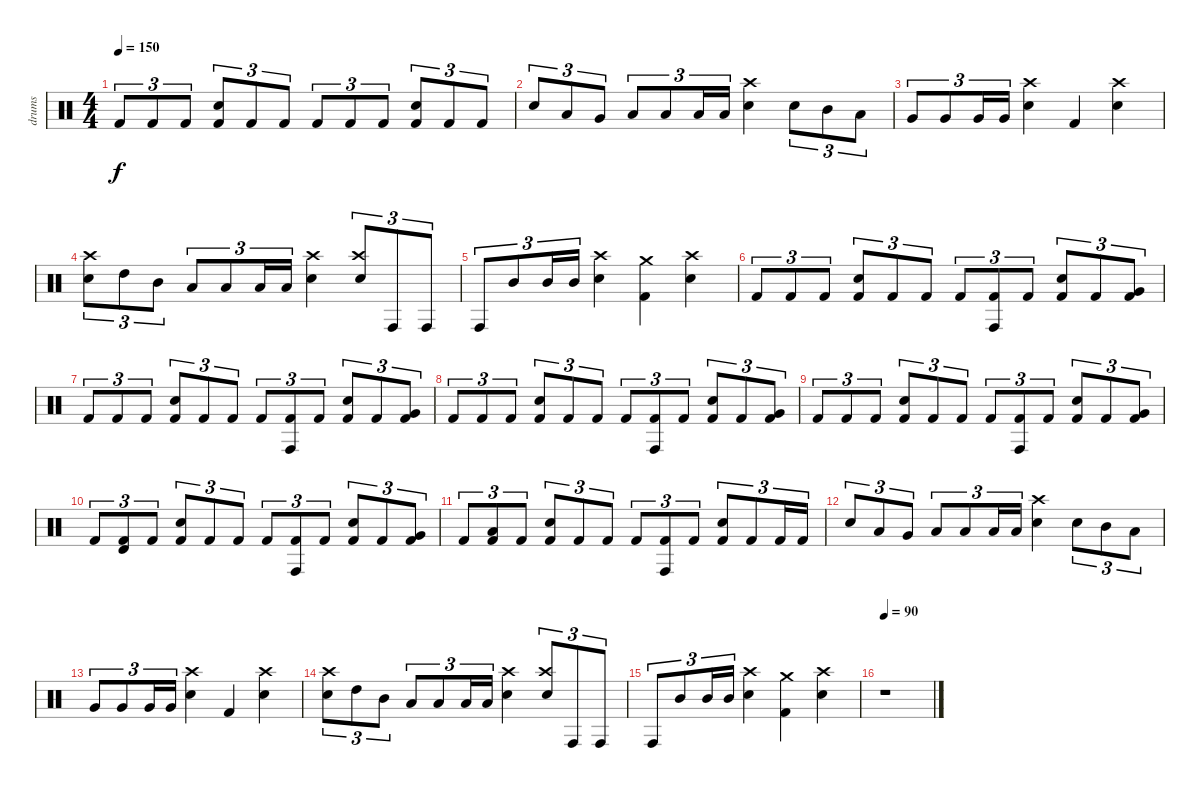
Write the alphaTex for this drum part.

\track ("drums" "drums") {instrument percussion}
\staff {score}
\articulation defaults
\ts (4 4)
\tempo 150
\clef neutral
\ks c "Kick (hit) 2".8{tu (3 2) dy f} "Kick (hit) 2".8{tu (3 2)} "Kick (hit) 2".8{tu (3 2)}
("Electric Snare (hit)" "Kick (hit) 2").8{tu (3 2)} "Kick (hit) 2".8{tu (3 2)} "Kick (hit) 2".8{tu (3 2)} "Kick (hit) 2".8{tu (3 2)} "Kick (hit) 2".8{tu (3 2)} "Kick (hit) 2".8{tu (3 2)} ("Electric Snare (hit)" "Kick (hit) 2").8{tu (3 2)} "Kick (hit) 2".8{tu (3 2)} "Kick (hit) 2".8{tu (3 2)} |
"Electric Snare (hit)".8{tu (3 2)} "Low Tom (hit)".8{tu (3 2)} "Very Low Tom (hit)".8{tu (3 2)} "Low Floor Tom (hit)".8{tu (3 2)} "Low Floor Tom (hit)".8{tu (3 2)} "Low Floor Tom (hit)".16{tu (3 2)} "Low Floor Tom (hit)".16{tu (3 2)} ("Crash high (hit)" "Electric Snare (hit)").4 "Electric Snare (hit)".8{tu (3 2)} "Mid Tom (hit)".8{tu (3 2)} "Low Tom (hit)".8{tu (3 2)} |
"Very Low Tom (hit)".8{tu (3 2)} "Very Low Tom (hit)".8{tu (3 2)} "Very Low Tom (hit)".16{tu (3 2)} "Very Low Tom (hit)".16{tu (3 2)} ("Crash high (hit)" "Electric Snare (hit)").4 "Kick (hit) 2".4 ("Crash high (hit)" "Electric Snare (hit)").4 |
("Crash high (hit)" "Electric Snare (hit)").8{tu (3 2)} "High Tom (hit)".8{tu (3 2)} "Mid Tom (hit)".8{tu (3 2)} "Low Tom (hit)".8{tu (3 2)} "Low Tom (hit)".8{tu (3 2)} "Low Tom (hit)".16{tu (3 2)} "Low Tom (hit)".16{tu (3 2)} ("Crash high (hit)" "Electric Snare (hit)").4 ("Crash high (hit)" "Electric Snare (hit)").8{tu (3 2)} "Conga high (hit)".8{tu (3 2)} "Conga high (hit)".8{tu (3 2)} |
"Conga high (hit)".8{tu (3 2)} "Mid Tom (hit)".8{tu (3 2)} "Mid Tom (hit)".16{tu (3 2)} "Mid Tom (hit)".16{tu (3 2)} ("Crash high (hit)" "Electric Snare (hit)").4 ("Crash medium (hit)" "Kick (hit) 2").4 ("Crash high (hit)" "Electric Snare (hit)").4 |
"Kick (hit) 2".8{tu (3 2)} "Kick (hit) 2".8{tu (3 2)} "Kick (hit) 2".8{tu (3 2)} ("Electric Snare (hit)" "Kick (hit) 2").8{tu (3 2)} "Kick (hit) 2".8{tu (3 2)} "Kick (hit) 2".8{tu (3 2)} "Kick (hit) 2".8{tu (3 2)} ("Conga high (hit)" "Kick (hit) 2").8{tu (3 2)} "Kick (hit) 2".8{tu (3 2)} ("Electric Snare (hit)" "Kick (hit) 2").8{tu (3 2)} "Kick (hit) 2".8{tu (3 2)} ("Very Low Tom (hit)" "Kick (hit) 2").8{tu (3 2)} |
"Kick (hit) 2".8{tu (3 2)} "Kick (hit) 2".8{tu (3 2)} "Kick (hit) 2".8{tu (3 2)} ("Electric Snare (hit)" "Kick (hit) 2").8{tu (3 2)} "Kick (hit) 2".8{tu (3 2)} "Kick (hit) 2".8{tu (3 2)} "Kick (hit) 2".8{tu (3 2)} ("Conga high (hit)" "Kick (hit) 2").8{tu (3 2)} "Kick (hit) 2".8{tu (3 2)} ("Electric Snare (hit)" "Kick (hit) 2").8{tu (3 2)} "Kick (hit) 2".8{tu (3 2)} ("Very Low Tom (hit)" "Kick (hit) 2").8{tu (3 2)} |
"Kick (hit) 2".8{tu (3 2)} "Kick (hit) 2".8{tu (3 2)} "Kick (hit) 2".8{tu (3 2)} ("Electric Snare (hit)" "Kick (hit) 2").8{tu (3 2)} "Kick (hit) 2".8{tu (3 2)} "Kick (hit) 2".8{tu (3 2)} "Kick (hit) 2".8{tu (3 2)} ("Conga high (hit)" "Kick (hit) 2").8{tu (3 2)} "Kick (hit) 2".8{tu (3 2)} ("Electric Snare (hit)" "Kick (hit) 2").8{tu (3 2)} "Kick (hit) 2".8{tu (3 2)} ("Very Low Tom (hit)" "Kick (hit) 2").8{tu (3 2)} |
"Kick (hit) 2".8{tu (3 2)} "Kick (hit) 2".8{tu (3 2)} "Kick (hit) 2".8{tu (3 2)} ("Electric Snare (hit)" "Kick (hit) 2").8{tu (3 2)} "Kick (hit) 2".8{tu (3 2)} "Kick (hit) 2".8{tu (3 2)} "Kick (hit) 2".8{tu (3 2)} ("Conga high (hit)" "Kick (hit) 2").8{tu (3 2)} "Kick (hit) 2".8{tu (3 2)} ("Electric Snare (hit)" "Kick (hit) 2").8{tu (3 2)} "Kick (hit) 2".8{tu (3 2)} ("Very Low Tom (hit)" "Kick (hit) 2").8{tu (3 2)} |
"Kick (hit) 2".8{tu (3 2)} ("Timbale high (hit)" "Kick (hit) 2").8{tu (3 2)} "Kick (hit) 2".8{tu (3 2)} ("Electric Snare (hit)" "Kick (hit) 2").8{tu (3 2)} "Kick (hit) 2".8{tu (3 2)} "Kick (hit) 2".8{tu (3 2)} "Kick (hit) 2".8{tu (3 2)} ("Conga high (hit)" "Kick (hit) 2").8{tu (3 2)} "Kick (hit) 2".8{tu (3 2)} ("Electric Snare (hit)" "Kick (hit) 2").8{tu (3 2)} "Kick (hit) 2".8{tu (3 2)} ("Very Low Tom (hit)" "Kick (hit) 2").8{tu (3 2)} |
"Kick (hit) 2".8{tu (3 2)} ("Low Floor Tom (hit)" "Kick (hit) 2").8{tu (3 2)} "Kick (hit) 2".8{tu (3 2)} ("Electric Snare (hit)" "Kick (hit) 2").8{tu (3 2)} "Kick (hit) 2".8{tu (3 2)} "Kick (hit) 2".8{tu (3 2)} "Kick (hit) 2".8{tu (3 2)} ("Conga high (hit)" "Kick (hit) 2").8{tu (3 2)} "Kick (hit) 2".8{tu (3 2)} ("Electric Snare (hit)" "Kick (hit) 2").8{tu (3 2)} "Kick (hit) 2".8{tu (3 2)} "Kick (hit) 2".16{tu (3 2)} "Kick (hit) 2".16{tu (3 2)} |
"Electric Snare (hit)".8{tu (3 2)} "Low Tom (hit)".8{tu (3 2)} "Very Low Tom (hit)".8{tu (3 2)} "Low Floor Tom (hit)".8{tu (3 2)} "Low Floor Tom (hit)".8{tu (3 2)} "Low Floor Tom (hit)".16{tu (3 2)} "Low Floor Tom (hit)".16{tu (3 2)} ("Crash high (hit)" "Electric Snare (hit)").4 "Electric Snare (hit)".8{tu (3 2)} "Mid Tom (hit)".8{tu (3 2)} "Low Tom (hit)".8{tu (3 2)} |
"Very Low Tom (hit)".8{tu (3 2)} "Very Low Tom (hit)".8{tu (3 2)} "Very Low Tom (hit)".16{tu (3 2)} "Very Low Tom (hit)".16{tu (3 2)} ("Crash high (hit)" "Electric Snare (hit)").4 "Kick (hit) 2".4 ("Crash high (hit)" "Electric Snare (hit)").4 |
("Crash high (hit)" "Electric Snare (hit)").8{tu (3 2)} "High Tom (hit)".8{tu (3 2)} "Mid Tom (hit)".8{tu (3 2)} "Low Tom (hit)".8{tu (3 2)} "Low Tom (hit)".8{tu (3 2)} "Low Tom (hit)".16{tu (3 2)} "Low Tom (hit)".16{tu (3 2)} ("Crash high (hit)" "Electric Snare (hit)").4 ("Crash high (hit)" "Electric Snare (hit)").8{tu (3 2)} "Conga high (hit)".8{tu (3 2)} "Conga high (hit)".8{tu (3 2)} |
"Conga high (hit)".8{tu (3 2)} "Mid Tom (hit)".8{tu (3 2)} "Mid Tom (hit)".16{tu (3 2)} "Mid Tom (hit)".16{tu (3 2)} ("Crash high (hit)" "Electric Snare (hit)").4 ("Crash medium (hit)" "Kick (hit) 2").4 ("Crash high (hit)" "Electric Snare (hit)").4 |
\tempo 90
r.1
